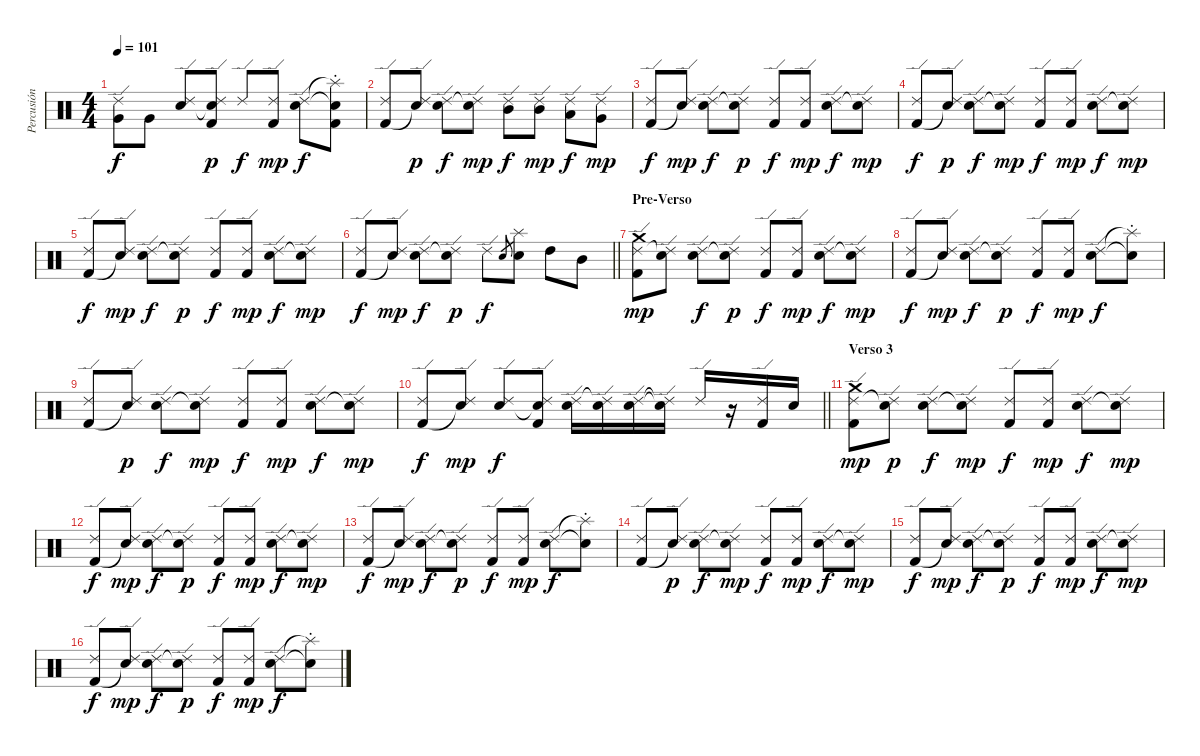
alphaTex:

\track ("Percusión" "Percusión") {instrument percussion}
\staff {score}
\articulation defaults
\ts (4 4)
\tempo 101
\clef neutral
\ks c
("Ride (edge) 2" "Very Low Tom (hit)").8{dy f} "Very Low Tom (hit)".8 ("Ride (edge) 2" "Snare (hit) 2").8 ("Ride (edge) 2" "Snare (hit)"{t} "Kick (hit) 2").8{dy p} "Ride (edge) 2".8{dy f} ("Ride (edge) 2" "Kick (hit) 2").8{dy mp} ("Ride (edge) 2" "Snare (hit) 2").8{dy f} ("Splash (choke)"{t} "Snare (hit)"{t} "Kick (hit) 2").8 |
("Ride (edge) 2" "Kick (hit) 2").8 ("Ride (edge) 2" "Snare (hit)"{t}).8{dy p} ("Ride (edge) 2" "Snare (hit) 2").8{dy f} ("Ride (edge) 2" "Snare (hit)"{t}).8{dy mp} ("Ride (edge) 2" "Mid Tom (hit)").8{dy f} ("Ride (edge) 2" "Mid Tom (hit)").8{dy mp} ("Ride (edge) 2" "Low Tom (hit)").8{dy f} ("Ride (edge) 2" "Very Low Tom (hit)").8{dy mp} |
("Ride (edge) 2" "Kick (hit) 2").8{dy f} ("Ride (edge) 2" "Snare (hit)"{t}).8{dy mp} ("Ride (edge) 2" "Snare (hit) 2").8{dy f} ("Ride (edge) 2" "Snare (hit)"{t}).8{dy p} ("Ride (edge) 2" "Kick (hit) 2").8{dy f} ("Ride (edge) 2" "Kick (hit) 2").8{dy mp} ("Ride (edge) 2" "Snare (hit) 2").8{dy f} ("Ride (edge) 2" "Snare (hit)"{t}).8{dy mp} |
("Ride (edge) 2" "Kick (hit) 2").8{dy f} ("Ride (edge) 2" "Snare (hit)"{t}).8{dy p} ("Ride (edge) 2" "Snare (hit) 2").8{dy f} ("Ride (edge) 2" "Snare (hit)"{t}).8{dy mp} ("Ride (edge) 2" "Kick (hit) 2").8{dy f} ("Ride (edge) 2" "Kick (hit) 2").8{dy mp} ("Ride (edge) 2" "Snare (hit) 2").8{dy f} ("Ride (edge) 2" "Snare (hit)"{t}).8{dy mp} |
("Ride (edge) 2" "Kick (hit) 2").8{dy f} ("Ride (edge) 2" "Snare (hit)"{t}).8{dy mp} ("Ride (edge) 2" "Snare (hit) 2").8{dy f} ("Ride (edge) 2" "Snare (hit)"{t}).8{dy p} ("Ride (edge) 2" "Kick (hit) 2").8{dy f} ("Ride (edge) 2" "Kick (hit) 2").8{dy mp} ("Ride (edge) 2" "Snare (hit) 2").8{dy f} ("Ride (edge) 2" "Snare (hit)"{t}).8{dy mp} |
\barLineRight lightlight
("Ride (edge) 2" "Kick (hit) 2").8{dy f} ("Ride (edge) 2" "Snare (hit)"{t}).8{dy mp} ("Ride (edge) 2" "Snare (hit) 2").8{dy f} ("Ride (edge) 2" "Snare (hit)"{t}).8{dy p} "Ride (edge) 2".8{dy f} "Snare (hit) 2".8{gr} ("Splash (hit)" "Electric Snare (hit)").8 "High Tom (hit)".8 "Mid Tom (hit)".8 |
\section ("" "Pre-Verso")
("Crash medium (hit)" "Ride (edge) 2" "Kick (hit) 2").8{dy mp} ("Ride (edge) 2" "Snare (hit)"{t}).8 ("Ride (edge) 2" "Snare (hit) 2").8{dy f} ("Ride (edge) 2" "Snare (hit)"{t}).8{dy p} ("Ride (edge) 2" "Kick (hit) 2").8{dy f} ("Ride (edge) 2" "Kick (hit) 2").8{dy mp} ("Ride (edge) 2" "Snare (hit) 2").8{dy f} ("Ride (edge) 2" "Snare (hit)"{t}).8{dy mp} |
("Ride (edge) 2" "Kick (hit) 2").8{dy f} ("Ride (edge) 2" "Snare (hit)"{t}).8{dy mp} ("Ride (edge) 2" "Snare (hit) 2").8{dy f} ("Ride (edge) 2" "Snare (hit)"{t}).8{dy p} ("Ride (edge) 2" "Kick (hit) 2").8{dy f} ("Ride (edge) 2" "Kick (hit) 2").8{dy mp} ("Ride (edge) 2" "Snare (hit) 2").8{dy f} ("Splash (choke)"{t} "Snare (hit)"{t}).8 |
("Ride (edge) 2" "Kick (hit) 2").8 ("Ride (edge) 2" "Snare (hit)"{t}).8{dy p} ("Ride (edge) 2" "Snare (hit) 2").8{dy f} ("Ride (edge) 2" "Snare (hit)"{t}).8{dy mp} ("Ride (edge) 2" "Kick (hit) 2").8{dy f} ("Ride (edge) 2" "Kick (hit) 2").8{dy mp} ("Ride (edge) 2" "Snare (hit) 2").8{dy f} ("Ride (edge) 2" "Snare (hit)"{t}).8{dy mp} |
\barLineRight lightlight
("Ride (edge) 2" "Kick (hit) 2").8{dy f} ("Ride (edge) 2" "Snare (hit)"{t}).8{dy mp} ("Ride (edge) 2" "Snare (hit) 2").8{dy f} ("Ride (edge) 2" "Snare (hit)"{t} "Kick (hit) 2").8 ("Ride (edge) 2" "Snare (hit) 2").16 ("Ride (edge) 2"{t} "Snare (hit) 2").16 ("Ride (edge) 2" "Snare (hit) 2").16 ("Ride (edge) 2"{t} "Snare (hit)"{t}).16 "Ride (edge) 2".16 r.16 ("Ride (edge) 2" "Kick (hit) 2").16 "Snare (hit) 2".16 |
\section ("" "Verso 3")
("Crash medium (hit)" "Ride (edge) 2" "Kick (hit) 2").8{dy mp} ("Ride (edge) 2" "Snare (hit)"{t}).8{dy p} ("Ride (edge) 2" "Snare (hit) 2").8{dy f} ("Ride (edge) 2" "Snare (hit)"{t}).8{dy mp} ("Ride (edge) 2" "Kick (hit) 2").8{dy f} ("Ride (edge) 2" "Kick (hit) 2").8{dy mp} ("Ride (edge) 2" "Snare (hit) 2").8{dy f} ("Ride (edge) 2" "Snare (hit)"{t}).8{dy mp} |
("Ride (edge) 2" "Kick (hit) 2").8{dy f} ("Ride (edge) 2" "Snare (hit)"{t}).8{dy mp} ("Ride (edge) 2" "Snare (hit) 2").8{dy f} ("Ride (edge) 2" "Snare (hit)"{t}).8{dy p} ("Ride (edge) 2" "Kick (hit) 2").8{dy f} ("Ride (edge) 2" "Kick (hit) 2").8{dy mp} ("Ride (edge) 2" "Snare (hit) 2").8{dy f} ("Ride (edge) 2" "Snare (hit)"{t}).8{dy mp} |
("Ride (edge) 2" "Kick (hit) 2").8{dy f} ("Ride (edge) 2" "Snare (hit)"{t}).8{dy mp} ("Ride (edge) 2" "Snare (hit) 2").8{dy f} ("Ride (edge) 2" "Snare (hit)"{t}).8{dy p} ("Ride (edge) 2" "Kick (hit) 2").8{dy f} ("Ride (edge) 2" "Kick (hit) 2").8{dy mp} ("Ride (edge) 2" "Snare (hit) 2").8{dy f} ("Splash (choke)"{t} "Snare (hit)"{t}).8 |
("Ride (edge) 2" "Kick (hit) 2").8 ("Ride (edge) 2" "Snare (hit)"{t}).8{dy p} ("Ride (edge) 2" "Snare (hit) 2").8{dy f} ("Ride (edge) 2" "Snare (hit)"{t}).8{dy mp} ("Ride (edge) 2" "Kick (hit) 2").8{dy f} ("Ride (edge) 2" "Kick (hit) 2").8{dy mp} ("Ride (edge) 2" "Snare (hit) 2").8{dy f} ("Ride (edge) 2" "Snare (hit)"{t}).8{dy mp} |
("Ride (edge) 2" "Kick (hit) 2").8{dy f} ("Ride (edge) 2" "Snare (hit)"{t}).8{dy mp} ("Ride (edge) 2" "Snare (hit) 2").8{dy f} ("Ride (edge) 2" "Snare (hit)"{t}).8{dy p} ("Ride (edge) 2" "Kick (hit) 2").8{dy f} ("Ride (edge) 2" "Kick (hit) 2").8{dy mp} ("Ride (edge) 2" "Snare (hit) 2").8{dy f} ("Ride (edge) 2" "Snare (hit)"{t}).8{dy mp} |
("Ride (edge) 2" "Kick (hit) 2").8{dy f} ("Ride (edge) 2" "Snare (hit)"{t}).8{dy mp} ("Ride (edge) 2" "Snare (hit) 2").8{dy f} ("Ride (edge) 2" "Snare (hit)"{t}).8{dy p} ("Ride (edge) 2" "Kick (hit) 2").8{dy f} ("Ride (edge) 2" "Kick (hit) 2").8{dy mp} ("Ride (edge) 2" "Snare (hit) 2").8{dy f} ("Splash (choke)"{t} "Snare (hit)"{t}).8
